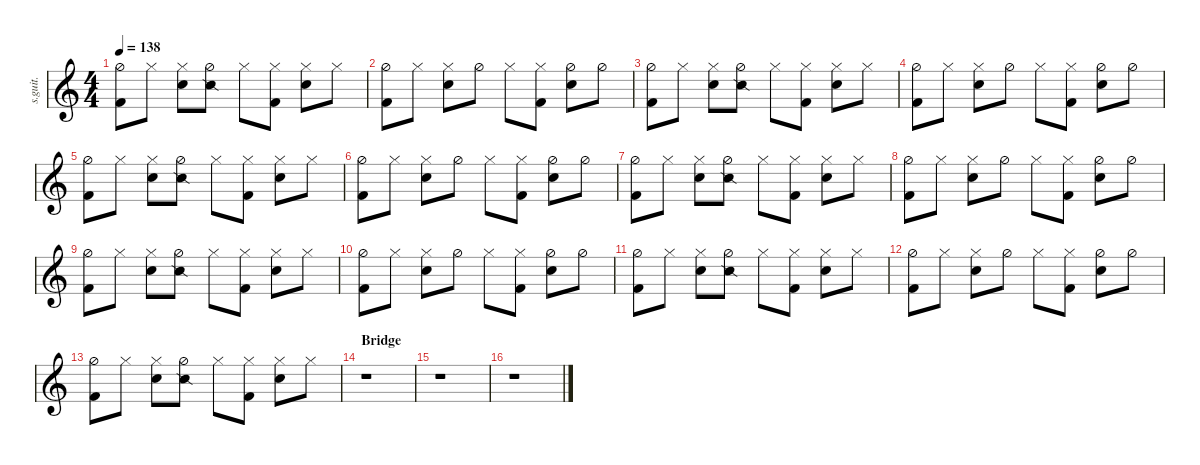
\defaultSystemsLayout 4
\hideDynamics
\bracketExtendMode nobrackets
\track ("Russel Hobbs | Drums" "s.guit.") {instrument percussion}
\staff {score}
\articulation defaults
\ts (4 4)
\tempo 138
\clef g2
\ks c
("Hi-Hat (half)" "Kick (hit) 2").8{dy f} "Hi-Hat (closed)".8 ("Hi-Hat (closed)" "Snare (hit) 2").8 ("Hi-Hat (half)" "Snare (side stick) 2").8 "Hi-Hat (closed)".8 ("Hi-Hat (closed)" "Kick (hit) 2").8 ("Hi-Hat (closed)" "Snare (hit) 2").8 "Hi-Hat (closed)".8 |
("Hi-Hat (half)" "Kick (hit) 2").8 "Hi-Hat (closed)".8 ("Hi-Hat (closed)" "Snare (hit) 2").8 "Hi-Hat (half)".8 "Hi-Hat (closed)".8 ("Hi-Hat (closed)" "Kick (hit) 2").8 ("Hi-Hat (half)" "Snare (hit) 2").8 "Hi-Hat (half)".8 |
("Hi-Hat (half)" "Kick (hit) 2").8 "Hi-Hat (closed)".8 ("Hi-Hat (closed)" "Snare (hit) 2").8 ("Hi-Hat (half)" "Snare (side stick) 2").8 "Hi-Hat (closed)".8 ("Hi-Hat (closed)" "Kick (hit) 2").8 ("Hi-Hat (closed)" "Snare (hit) 2").8 "Hi-Hat (closed)".8 |
("Hi-Hat (half)" "Kick (hit) 2").8 "Hi-Hat (closed)".8 ("Hi-Hat (closed)" "Snare (hit) 2").8 "Hi-Hat (half)".8 "Hi-Hat (closed)".8 ("Hi-Hat (closed)" "Kick (hit) 2").8 ("Hi-Hat (half)" "Snare (hit) 2").8 "Hi-Hat (half)".8 |
("Hi-Hat (half)" "Kick (hit) 2").8 "Hi-Hat (closed)".8 ("Hi-Hat (closed)" "Snare (hit) 2").8 ("Hi-Hat (half)" "Snare (side stick) 2").8 "Hi-Hat (closed)".8 ("Hi-Hat (closed)" "Kick (hit) 2").8 ("Hi-Hat (closed)" "Snare (hit) 2").8 "Hi-Hat (closed)".8 |
("Hi-Hat (half)" "Kick (hit) 2").8 "Hi-Hat (closed)".8 ("Hi-Hat (closed)" "Snare (hit) 2").8 "Hi-Hat (half)".8 "Hi-Hat (closed)".8 ("Hi-Hat (closed)" "Kick (hit) 2").8 ("Hi-Hat (half)" "Snare (hit) 2").8 "Hi-Hat (half)".8 |
("Hi-Hat (half)" "Kick (hit) 2").8 "Hi-Hat (closed)".8 ("Hi-Hat (closed)" "Snare (hit) 2").8 ("Hi-Hat (half)" "Snare (side stick) 2").8 "Hi-Hat (closed)".8 ("Hi-Hat (closed)" "Kick (hit) 2").8 ("Hi-Hat (closed)" "Snare (hit) 2").8 "Hi-Hat (closed)".8 |
("Hi-Hat (half)" "Kick (hit) 2").8 "Hi-Hat (closed)".8 ("Hi-Hat (closed)" "Snare (hit) 2").8 "Hi-Hat (half)".8 "Hi-Hat (closed)".8 ("Hi-Hat (closed)" "Kick (hit) 2").8 ("Hi-Hat (half)" "Snare (hit) 2").8 "Hi-Hat (half)".8 |
("Hi-Hat (half)" "Kick (hit) 2").8 "Hi-Hat (closed)".8 ("Hi-Hat (closed)" "Snare (hit) 2").8 ("Hi-Hat (half)" "Snare (side stick) 2").8 "Hi-Hat (closed)".8 ("Hi-Hat (closed)" "Kick (hit) 2").8 ("Hi-Hat (closed)" "Snare (hit) 2").8 "Hi-Hat (closed)".8 |
("Hi-Hat (half)" "Kick (hit) 2").8 "Hi-Hat (closed)".8 ("Hi-Hat (closed)" "Snare (hit) 2").8 "Hi-Hat (half)".8 "Hi-Hat (closed)".8 ("Hi-Hat (closed)" "Kick (hit) 2").8 ("Hi-Hat (half)" "Snare (hit) 2").8 "Hi-Hat (half)".8 |
("Hi-Hat (half)" "Kick (hit) 2").8 "Hi-Hat (closed)".8 ("Hi-Hat (closed)" "Snare (hit) 2").8 ("Hi-Hat (half)" "Snare (side stick) 2").8 "Hi-Hat (closed)".8 ("Hi-Hat (closed)" "Kick (hit) 2").8 ("Hi-Hat (closed)" "Snare (hit) 2").8 "Hi-Hat (closed)".8 |
("Hi-Hat (half)" "Kick (hit) 2").8 "Hi-Hat (closed)".8 ("Hi-Hat (closed)" "Snare (hit) 2").8 "Hi-Hat (half)".8 "Hi-Hat (closed)".8 ("Hi-Hat (closed)" "Kick (hit) 2").8 ("Hi-Hat (half)" "Snare (hit) 2").8 "Hi-Hat (half)".8 |
("Hi-Hat (half)" "Kick (hit) 2").8 "Hi-Hat (closed)".8 ("Hi-Hat (closed)" "Snare (hit) 2").8 ("Hi-Hat (half)" "Snare (side stick) 2").8 "Hi-Hat (closed)".8 ("Hi-Hat (closed)" "Kick (hit) 2").8 ("Hi-Hat (closed)" "Snare (hit) 2").8 "Hi-Hat (closed)".8 |
\section ("" "Bridge")
r.1 |
r.1 |
r.1
